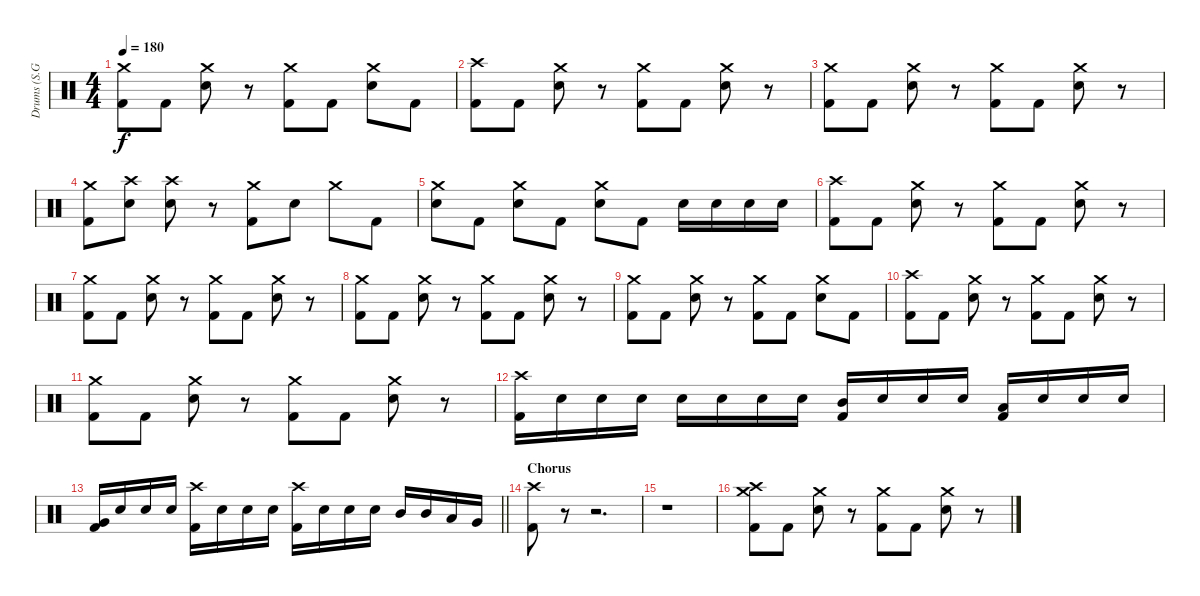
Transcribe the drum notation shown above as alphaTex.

\track ("Drums (S.G. Yim)" "Drums (S.G") {instrument percussion}
\staff {score}
\articulation defaults
\ts (4 4)
\tempo 180
\clef neutral
\ks c
("Crash medium (hit)" "Kick (hit) 2").8{dy f} "Kick (hit) 2".8 ("Crash medium (hit)" "Snare (hit) 2").8 r.8 ("Crash medium (hit)" "Kick (hit) 2").8 "Kick (hit) 2".8 ("Crash medium (hit)" "Snare (hit) 2").8 "Kick (hit) 2".8 |
("Crash high (hit)" "Kick (hit) 2").8 "Kick (hit) 2".8 ("Crash medium (hit)" "Snare (hit) 2").8 r.8 ("Crash medium (hit)" "Kick (hit) 2").8 "Kick (hit) 2".8 ("Crash medium (hit)" "Snare (hit) 2").8 r.8 |
("Crash medium (hit)" "Kick (hit) 2").8 "Kick (hit) 2".8 ("Crash medium (hit)" "Snare (hit) 2").8 r.8 ("Crash medium (hit)" "Kick (hit) 2").8 "Kick (hit) 2".8 ("Crash medium (hit)" "Snare (hit) 2").8 r.8 |
("Crash medium (hit)" "Kick (hit) 2").8 ("Crash high (hit)" "Snare (hit) 2").8 ("Crash high (hit)" "Snare (hit) 2").8 r.8 ("Crash medium (hit)" "Kick (hit) 2").8 "Snare (hit) 2".8 "Crash medium (hit)".8 "Kick (hit) 2".8 |
("Crash medium (hit)" "Snare (hit) 2").8 "Kick (hit) 2".8 ("Crash medium (hit)" "Snare (hit) 2").8 "Kick (hit) 2".8 ("Crash medium (hit)" "Snare (hit) 2").8 "Kick (hit) 2".8 "Snare (hit) 2".16 "Snare (hit) 2".16 "Snare (hit) 2".16 "Snare (hit) 2".16 |
("Crash high (hit)" "Kick (hit) 2").8 "Kick (hit) 2".8 ("Crash medium (hit)" "Snare (hit) 2").8 r.8 ("Crash medium (hit)" "Kick (hit) 2").8 "Kick (hit) 2".8 ("Crash medium (hit)" "Snare (hit) 2").8 r.8 |
("Crash medium (hit)" "Kick (hit) 2").8 "Kick (hit) 2".8 ("Crash medium (hit)" "Snare (hit) 2").8 r.8 ("Crash medium (hit)" "Kick (hit) 2").8 "Kick (hit) 2".8 ("Crash medium (hit)" "Snare (hit) 2").8 r.8 |
("Crash medium (hit)" "Kick (hit) 2").8 "Kick (hit) 2".8 ("Crash medium (hit)" "Snare (hit) 2").8 r.8 ("Crash medium (hit)" "Kick (hit) 2").8 "Kick (hit) 2".8 ("Crash medium (hit)" "Snare (hit) 2").8 r.8 |
("Crash medium (hit)" "Kick (hit) 2").8 "Kick (hit) 2".8 ("Crash medium (hit)" "Snare (hit) 2").8 r.8 ("Crash medium (hit)" "Kick (hit) 2").8 "Kick (hit) 2".8 ("Crash medium (hit)" "Snare (hit) 2").8 "Kick (hit) 2".8 |
("Crash high (hit)" "Kick (hit) 2").8 "Kick (hit) 2".8 ("Crash medium (hit)" "Snare (hit) 2").8 r.8 ("Crash medium (hit)" "Kick (hit) 2").8 "Kick (hit) 2".8 ("Crash medium (hit)" "Snare (hit) 2").8 r.8 |
("Crash medium (hit)" "Kick (hit) 2").8 "Kick (hit) 2".8 ("Crash medium (hit)" "Snare (hit) 2").8 r.8 ("Crash medium (hit)" "Kick (hit) 2").8 "Kick (hit) 2".8 ("Crash medium (hit)" "Snare (hit) 2").8 r.8 |
("Crash high (hit)" "Kick (hit) 2").16 "Snare (hit) 2".16 "Snare (hit) 2".16 "Snare (hit) 2".16 "Snare (hit) 2".16 "Snare (hit) 2".16 "Snare (hit) 2".16 "Snare (hit) 2".16 ("Mid Tom (hit)" "Kick (hit) 2").16 "Snare (hit) 2".16 "Snare (hit) 2".16 "Snare (hit) 2".16 ("Low Tom (hit)" "Kick (hit) 2").16 "Snare (hit) 2".16 "Snare (hit) 2".16 "Snare (hit) 2".16 |
\barLineRight lightlight
("Very Low Tom (hit)" "Kick (hit) 2").16 "Snare (hit) 2".16 "Snare (hit) 2".16 "Snare (hit) 2".16 ("Crash high (hit)" "Kick (hit) 2").16 "Snare (hit) 2".16 "Snare (hit) 2".16 "Snare (hit) 2".16 ("Crash high (hit)" "Kick (hit) 2").16 "Snare (hit) 2".16 "Snare (hit) 2".16 "Snare (hit) 2".16 "Mid Tom (hit)".16 "Mid Tom (hit)".16 "Low Tom (hit)".16 "Very Low Tom (hit)".16 |
\section ("" "Chorus")
("Crash high (hit)" "Kick (hit) 2").8 r.8 r.2{d} |
r.1 |
("Crash high (hit)" "Crash medium (hit)" "Kick (hit) 2").8 "Kick (hit) 2".8 ("Crash medium (hit)" "Snare (hit) 2").8 r.8 ("Crash medium (hit)" "Kick (hit) 2").8 "Kick (hit) 2".8 ("Crash medium (hit)" "Snare (hit) 2").8 r.8
